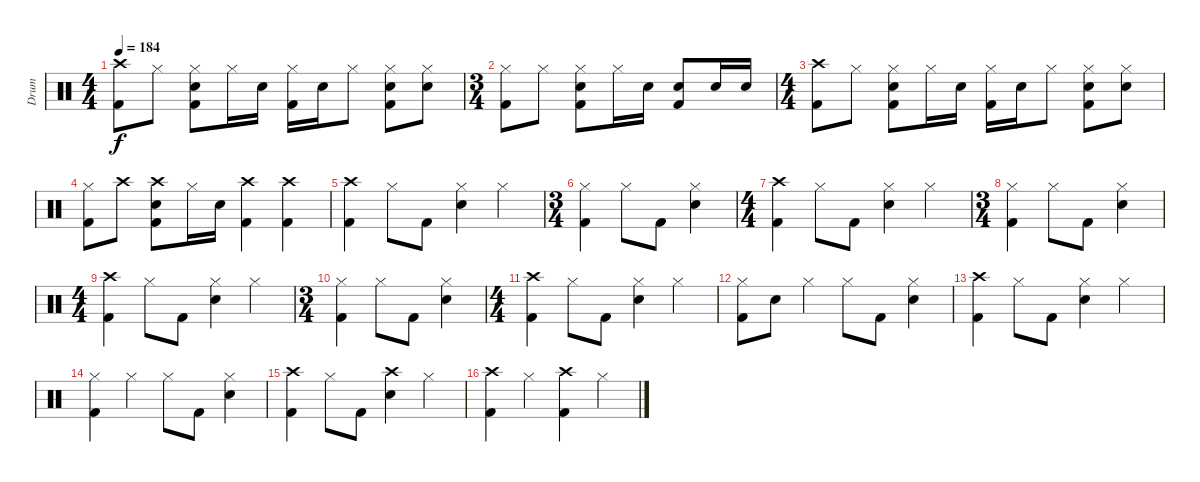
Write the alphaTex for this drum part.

\track ("Drum" "Drum") {instrument percussion}
\staff {score}
\articulation defaults
\ts (4 4)
\tempo 184
\clef neutral
\ks c
("Crash high (hit)" "Kick (hit) 2").8{dy f} "Hi-Hat (closed)".8 ("Hi-Hat (closed)" "Electric Snare (hit)" "Kick (hit) 2").8 "Hi-Hat (closed)".16 "Electric Snare (hit)".16 ("Hi-Hat (closed)" "Kick (hit) 2").16 "Electric Snare (hit)".16 "Hi-Hat (closed)".8 ("Hi-Hat (closed)" "Electric Snare (hit)" "Kick (hit) 2").8 ("Hi-Hat (closed)" "Electric Snare (hit)").8 |
\ts (3 4)
("Hi-Hat (closed)" "Kick (hit) 2").8 "Hi-Hat (closed)".8 ("Hi-Hat (closed)" "Electric Snare (hit)" "Kick (hit) 2").8 "Hi-Hat (closed)".16 "Electric Snare (hit)".16 ("Electric Snare (hit)" "Kick (hit) 2").8 "Electric Snare (hit)".16 "Electric Snare (hit)".16 |
\ts (4 4)
("Crash high (hit)" "Kick (hit) 2").8 "Hi-Hat (closed)".8 ("Hi-Hat (closed)" "Electric Snare (hit)" "Kick (hit) 2").8 "Hi-Hat (closed)".16 "Electric Snare (hit)".16 ("Hi-Hat (closed)" "Kick (hit) 2").16 "Electric Snare (hit)".16 "Hi-Hat (closed)".8 ("Hi-Hat (closed)" "Electric Snare (hit)" "Kick (hit) 2").8 ("Hi-Hat (closed)" "Electric Snare (hit)").8 |
("Hi-Hat (closed)" "Kick (hit) 2").8 "Crash high (hit)".8 ("Crash high (hit)" "Electric Snare (hit)" "Kick (hit) 2").8 "Hi-Hat (closed)".16 "Electric Snare (hit)".16 ("Crash high (hit)" "Kick (hit) 2").4 ("Crash high (hit)" "Kick (hit) 2").4 |
("Crash high (hit)" "Kick (hit) 2").4 "Hi-Hat (closed)".8 "Kick (hit) 2".8 ("Hi-Hat (closed)" "Electric Snare (hit)").4 "Hi-Hat (closed)".4 |
\ts (3 4)
("Hi-Hat (closed)" "Kick (hit) 2").4 "Hi-Hat (closed)".8 "Kick (hit) 2".8 ("Hi-Hat (closed)" "Electric Snare (hit)").4 |
\ts (4 4)
("Crash high (hit)" "Kick (hit) 2").4 "Hi-Hat (closed)".8 "Kick (hit) 2".8 ("Hi-Hat (closed)" "Electric Snare (hit)").4 "Hi-Hat (closed)".4 |
\ts (3 4)
("Hi-Hat (closed)" "Kick (hit) 2").4 "Hi-Hat (closed)".8 "Kick (hit) 2".8 ("Hi-Hat (closed)" "Electric Snare (hit)").4 |
\ts (4 4)
("Crash high (hit)" "Kick (hit) 2").4 "Hi-Hat (closed)".8 "Kick (hit) 2".8 ("Hi-Hat (closed)" "Electric Snare (hit)").4 "Hi-Hat (closed)".4 |
\ts (3 4)
("Hi-Hat (closed)" "Kick (hit) 2").4 "Hi-Hat (closed)".8 "Kick (hit) 2".8 ("Hi-Hat (closed)" "Electric Snare (hit)").4 |
\ts (4 4)
("Crash high (hit)" "Kick (hit) 2").4 "Hi-Hat (closed)".8 "Kick (hit) 2".8 ("Hi-Hat (closed)" "Electric Snare (hit)").4 "Hi-Hat (closed)".4 |
("Hi-Hat (closed)" "Kick (hit) 2").8 "Electric Snare (hit)".8 "Hi-Hat (closed)".4 "Hi-Hat (closed)".8 "Kick (hit) 2".8 ("Hi-Hat (closed)" "Electric Snare (hit)").4 |
("Crash high (hit)" "Kick (hit) 2").4 "Hi-Hat (closed)".8 "Kick (hit) 2".8 ("Hi-Hat (closed)" "Electric Snare (hit)").4 "Hi-Hat (closed)".4 |
("Hi-Hat (closed)" "Kick (hit) 2").4 "Hi-Hat (closed)".4 "Hi-Hat (closed)".8 "Kick (hit) 2".8 ("Hi-Hat (closed)" "Electric Snare (hit)").4 |
("Crash high (hit)" "Kick (hit) 2").4 "Hi-Hat (closed)".8 "Kick (hit) 2".8 ("Crash high (hit)" "Electric Snare (hit)").4 "Hi-Hat (closed)".4 |
("Crash high (hit)" "Kick (hit) 2").4 "Hi-Hat (closed)".4 ("Crash high (hit)" "Kick (hit) 2").4 "Hi-Hat (closed)".4
